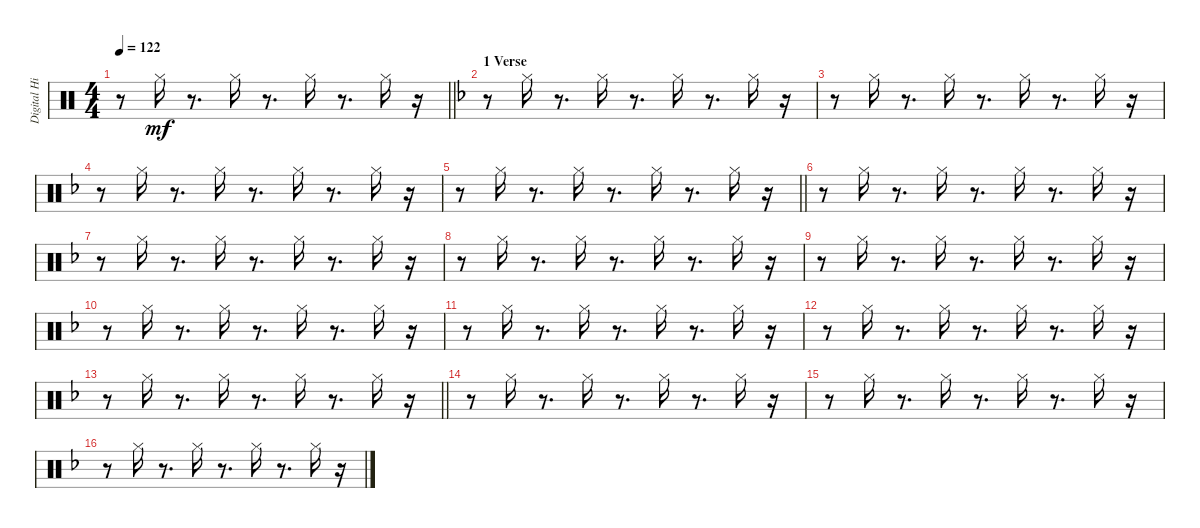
\track ("Digital Hi-Hat (Stephen Morris)" "Digital Hi") {instrument percussion}
\staff {score}
\articulation defaults
\ts (4 4)
\tempo 122
\clef neutral
\barLineRight lightlight
\ks c
r.8{dy mf} "Hi-Hat (closed)".16 r.8{d} "Hi-Hat (closed)".16 r.8{d} "Hi-Hat (closed)".16 r.8{d} "Hi-Hat (closed)".16 r.16 |
\section ("" "1 Verse")
\ks f
r.8 "Hi-Hat (closed)".16 r.8{d} "Hi-Hat (closed)".16 r.8{d} "Hi-Hat (closed)".16 r.8{d} "Hi-Hat (closed)".16 r.16 |
r.8 "Hi-Hat (closed)".16 r.8{d} "Hi-Hat (closed)".16 r.8{d} "Hi-Hat (closed)".16 r.8{d} "Hi-Hat (closed)".16 r.16 |
r.8 "Hi-Hat (closed)".16 r.8{d} "Hi-Hat (closed)".16 r.8{d} "Hi-Hat (closed)".16 r.8{d} "Hi-Hat (closed)".16 r.16 |
\barLineRight lightlight
r.8 "Hi-Hat (closed)".16 r.8{d} "Hi-Hat (closed)".16 r.8{d} "Hi-Hat (closed)".16 r.8{d} "Hi-Hat (closed)".16 r.16 |
r.8 "Hi-Hat (closed)".16 r.8{d} "Hi-Hat (closed)".16 r.8{d} "Hi-Hat (closed)".16 r.8{d} "Hi-Hat (closed)".16 r.16 |
r.8 "Hi-Hat (closed)".16 r.8{d} "Hi-Hat (closed)".16 r.8{d} "Hi-Hat (closed)".16 r.8{d} "Hi-Hat (closed)".16 r.16 |
r.8 "Hi-Hat (closed)".16 r.8{d} "Hi-Hat (closed)".16 r.8{d} "Hi-Hat (closed)".16 r.8{d} "Hi-Hat (closed)".16 r.16 |
r.8 "Hi-Hat (closed)".16 r.8{d} "Hi-Hat (closed)".16 r.8{d} "Hi-Hat (closed)".16 r.8{d} "Hi-Hat (closed)".16 r.16 |
r.8 "Hi-Hat (closed)".16 r.8{d} "Hi-Hat (closed)".16 r.8{d} "Hi-Hat (closed)".16 r.8{d} "Hi-Hat (closed)".16 r.16 |
r.8 "Hi-Hat (closed)".16 r.8{d} "Hi-Hat (closed)".16 r.8{d} "Hi-Hat (closed)".16 r.8{d} "Hi-Hat (closed)".16 r.16 |
r.8 "Hi-Hat (closed)".16 r.8{d} "Hi-Hat (closed)".16 r.8{d} "Hi-Hat (closed)".16 r.8{d} "Hi-Hat (closed)".16 r.16 |
\barLineRight lightlight
r.8 "Hi-Hat (closed)".16 r.8{d} "Hi-Hat (closed)".16 r.8{d} "Hi-Hat (closed)".16 r.8{d} "Hi-Hat (closed)".16 r.16 |
r.8 "Hi-Hat (closed)".16 r.8{d} "Hi-Hat (closed)".16 r.8{d} "Hi-Hat (closed)".16 r.8{d} "Hi-Hat (closed)".16 r.16 |
r.8 "Hi-Hat (closed)".16 r.8{d} "Hi-Hat (closed)".16 r.8{d} "Hi-Hat (closed)".16 r.8{d} "Hi-Hat (closed)".16 r.16 |
r.8 "Hi-Hat (closed)".16 r.8{d} "Hi-Hat (closed)".16 r.8{d} "Hi-Hat (closed)".16 r.8{d} "Hi-Hat (closed)".16 r.16
